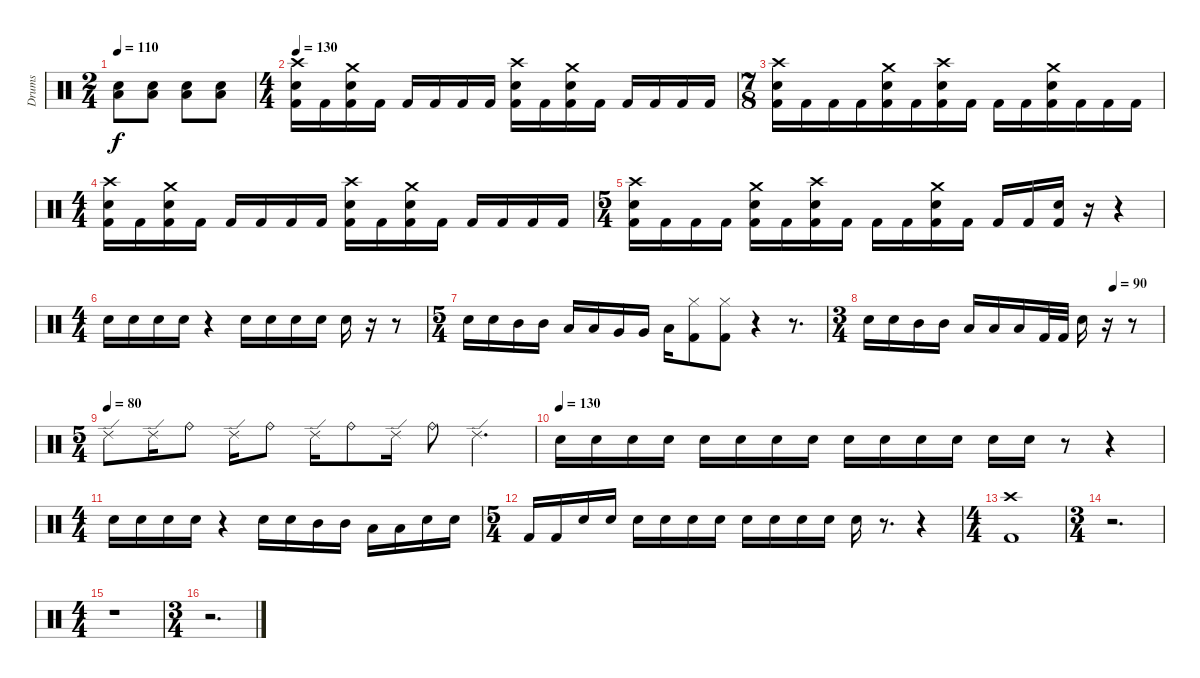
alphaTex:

\track ("Drums" "Drums") {instrument percussion}
\staff {score}
\articulation defaults
\ts (2 4)
\tempo 110
\clef neutral
\ks c
("Low Floor Tom (hit)" "Electric Snare (hit)").8{dy f} ("Low Floor Tom (hit)" "Electric Snare (hit)").8 ("Low Floor Tom (hit)" "Electric Snare (hit)").8 ("Low Floor Tom (hit)" "Electric Snare (hit)").8 |
\ts (4 4)
\tempo 130
("Kick (hit) 2" "Crash high (hit)" "Electric Snare (hit)").16 "Kick (hit) 2".16 ("Kick (hit) 2" "Crash medium (hit)" "Electric Snare (hit)").16 "Kick (hit) 2".16 "Kick (hit) 2".16 "Kick (hit) 2".16 "Kick (hit) 2".16 "Kick (hit) 2".16 ("Kick (hit) 2" "Crash high (hit)" "Electric Snare (hit)").16 "Kick (hit) 2".16 ("Kick (hit) 2" "Crash medium (hit)" "Electric Snare (hit)").16 "Kick (hit) 2".16 "Kick (hit) 2".16 "Kick (hit) 2".16 "Kick (hit) 2".16 "Kick (hit) 2".16 |
\ts (7 8)
("Kick (hit) 2" "Crash high (hit)" "Electric Snare (hit)").16 "Kick (hit) 2".16 "Kick (hit) 2".16 "Kick (hit) 2".16 ("Kick (hit) 2" "Crash medium (hit)" "Electric Snare (hit)").16 "Kick (hit) 2".16 ("Kick (hit) 2" "Crash high (hit)" "Electric Snare (hit)").16 "Kick (hit) 2".16 "Kick (hit) 2".16 "Kick (hit) 2".16 ("Kick (hit) 2" "Crash medium (hit)" "Electric Snare (hit)").16 "Kick (hit) 2".16 "Kick (hit) 2".16 "Kick (hit) 2".16 |
\ts (4 4)
("Kick (hit) 2" "Crash high (hit)" "Electric Snare (hit)").16 "Kick (hit) 2".16 ("Kick (hit) 2" "Crash medium (hit)" "Electric Snare (hit)").16 "Kick (hit) 2".16 "Kick (hit) 2".16 "Kick (hit) 2".16 "Kick (hit) 2".16 "Kick (hit) 2".16 ("Kick (hit) 2" "Crash high (hit)" "Electric Snare (hit)").16 "Kick (hit) 2".16 ("Kick (hit) 2" "Crash medium (hit)" "Electric Snare (hit)").16 "Kick (hit) 2".16 "Kick (hit) 2".16 "Kick (hit) 2".16 "Kick (hit) 2".16 "Kick (hit) 2".16 |
\ts (5 4)
("Kick (hit) 2" "Crash high (hit)" "Electric Snare (hit)").16 "Kick (hit) 2".16 "Kick (hit) 2".16 "Kick (hit) 2".16 ("Kick (hit) 2" "Crash medium (hit)" "Electric Snare (hit)").16 "Kick (hit) 2".16 ("Kick (hit) 2" "Crash high (hit)" "Electric Snare (hit)").16 "Kick (hit) 2".16 "Kick (hit) 2".16 "Kick (hit) 2".16 ("Kick (hit) 2" "Crash medium (hit)" "Electric Snare (hit)").16 "Kick (hit) 2".16 "Kick (hit) 2".16 "Kick (hit) 2".16 ("Kick (hit) 2" "Electric Snare (hit)").16 r.16 r.4 |
\ts (4 4)
"Electric Snare (hit)".16 "Electric Snare (hit)".16 "Electric Snare (hit)".16 "Electric Snare (hit)".16 r.4 "Electric Snare (hit)".16 "Electric Snare (hit)".16 "Electric Snare (hit)".16 "Electric Snare (hit)".16 "Electric Snare (hit)".16 r.16 r.8 |
\ts (5 4)
"Electric Snare (hit)".16 "Electric Snare (hit)".16 "Mid Tom (hit)".16 "Mid Tom (hit)".16 "Low Tom (hit)".16 "Low Tom (hit)".16 "Very Low Tom (hit)".16 "Very Low Tom (hit)".16 "Low Floor Tom (hit)".16 ("Kick (hit) 2" "Hi-Hat (closed)").8 ("Kick (hit) 2" "Hi-Hat (closed)").8 r.4 r.8{d} |
\ts (3 4)
\tempo (90 0.8333333333333334)
"Electric Snare (hit)".16 "Electric Snare (hit)".16 "Mid Tom (hit)".16 "Mid Tom (hit)".16 "Low Tom (hit)".16 "Low Tom (hit)".16 "Low Floor Tom (hit)".16 "Kick (hit) 2".32 "Kick (hit) 2".32 "Electric Snare (hit)".16 r.16 r.8 |
\ts (5 4)
\tempo (80)
"Ride (edge) 2".8 "Ride (edge) 2".16 "Ride (bell)".8 "Ride (edge) 2".16 "Ride (bell)".8 "Ride (edge) 2".16 "Ride (bell)".8 "Ride (edge) 2".16 "Ride (bell)".8 "Ride (edge) 2".4{d} |
\tempo (130)
"Electric Snare (hit)".16 "Electric Snare (hit)".16 "Electric Snare (hit)".16 "Electric Snare (hit)".16 "Electric Snare (hit)".16 "Electric Snare (hit)".16 "Electric Snare (hit)".16 "Electric Snare (hit)".16 "Electric Snare (hit)".16 "Electric Snare (hit)".16 "Electric Snare (hit)".16 "Electric Snare (hit)".16 "Electric Snare (hit)".16 "Electric Snare (hit)".16 r.8 r.4 |
\ts (4 4)
"Electric Snare (hit)".16 "Electric Snare (hit)".16 "Electric Snare (hit)".16 "Electric Snare (hit)".16 r.4 "Electric Snare (hit)".16 "Electric Snare (hit)".16 "Mid Tom (hit)".16 "Mid Tom (hit)".16 "Low Tom (hit)".16 "Low Tom (hit)".16 "Electric Snare (hit)".16 "Electric Snare (hit)".16 |
\ts (5 4)
"Kick (hit) 2".16 "Kick (hit) 2".16 "Electric Snare (hit)".16 "Electric Snare (hit)".16 "Electric Snare (hit)".16 "Electric Snare (hit)".16 "Electric Snare (hit)".16 "Electric Snare (hit)".16 "Electric Snare (hit)".16 "Electric Snare (hit)".16 "Electric Snare (hit)".16 "Electric Snare (hit)".16 "Electric Snare (hit)".16 r.8{d} r.4 |
\ts (4 4)
("Kick (hit) 2" "Crash high (hit)").1 |
\ts (3 4)
r.2{d} |
\ts (4 4)
r.1 |
\ts (3 4)
r.2{d}
